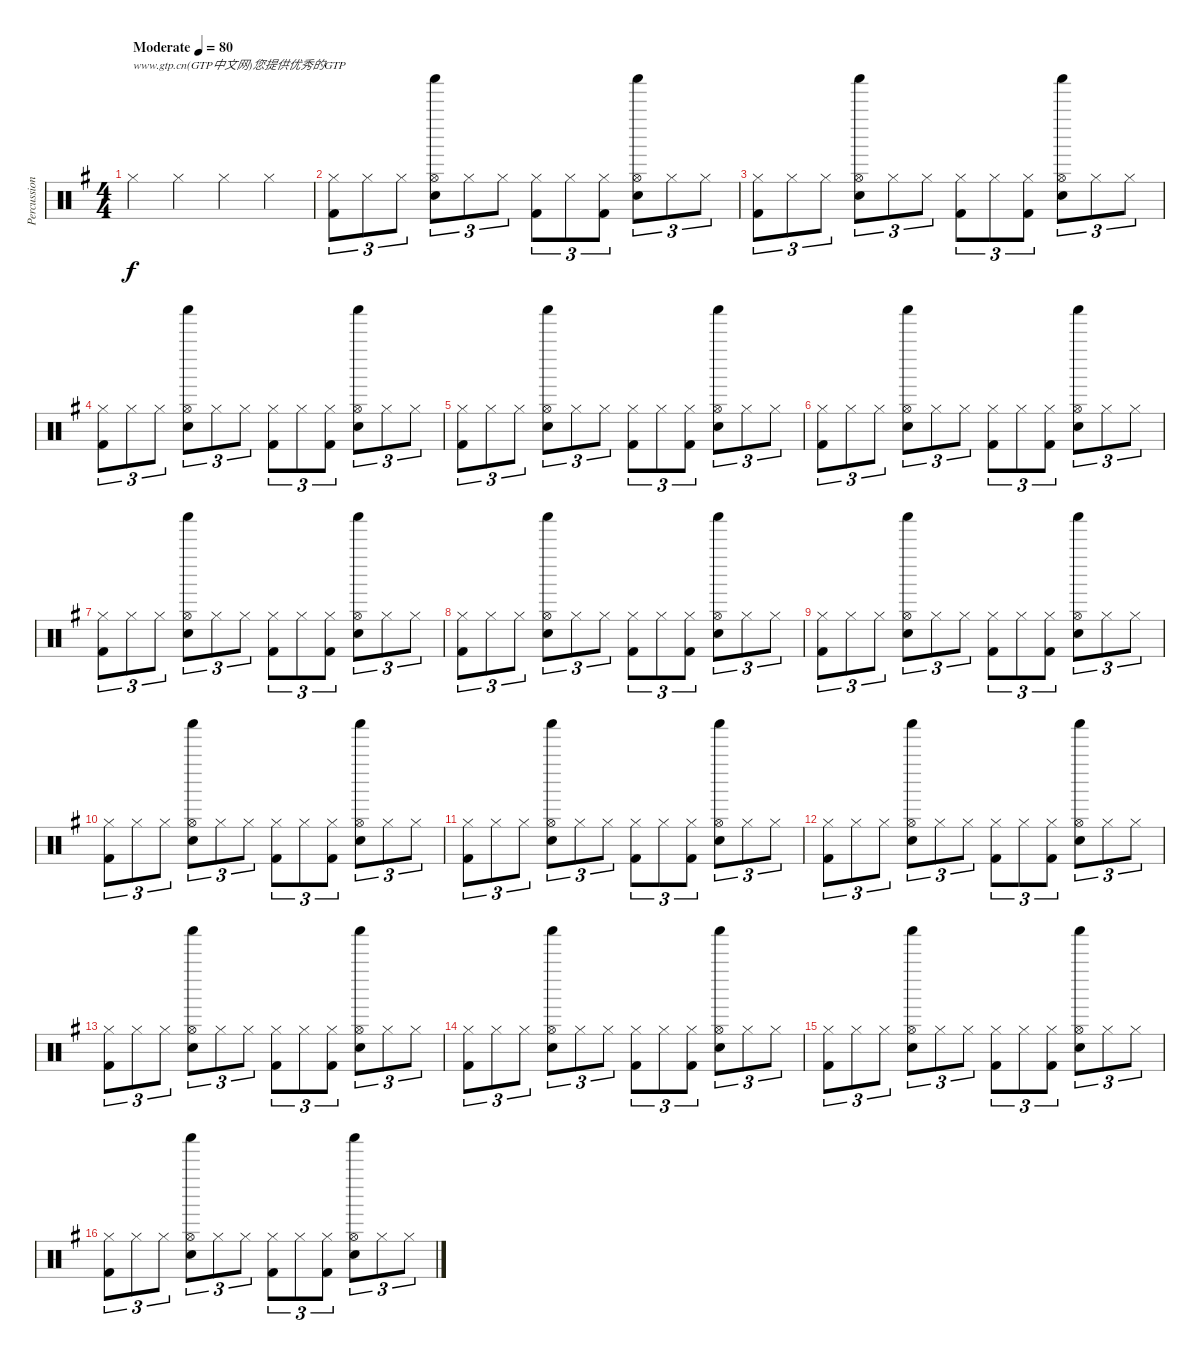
\track ("Percussion" "Percussion") {instrument percussion}
\staff {score}
\articulation defaults
\ts (4 4)
\tempo (80 "Moderate")
\clef neutral
\ks g "Hi-Hat (closed)".4{txt "www.gtp.cn(GTP中文网)您提供优秀的GTP" dy f} "Hi-Hat (closed)".4 "Hi-Hat (closed)".4 "Hi-Hat (closed)".4
|
("Kick (hit) 2" "Hi-Hat (closed)").8{tu (3 2)} "Hi-Hat (closed)".8{tu (3 2)} "Hi-Hat (closed)".8{tu (3 2)} ("Electric Snare (hit)" "Shaker (hit)" "Hi-Hat (open)").8{tu (3 2)} "Hi-Hat (closed)".8{tu (3 2)} "Hi-Hat (closed)".8{tu (3 2)} ("Kick (hit) 2" "Hi-Hat (closed)").8{tu (3 2)} "Hi-Hat (closed)".8{tu (3 2)} ("Kick (hit) 2" "Hi-Hat (closed)").8{tu (3 2)} ("Electric Snare (hit)" "Shaker (hit)" "Hi-Hat (open)").8{tu (3 2)} "Hi-Hat (closed)".8{tu (3 2)} "Hi-Hat (closed)".8{tu (3 2)} |
("Kick (hit) 2" "Hi-Hat (closed)").8{tu (3 2)} "Hi-Hat (closed)".8{tu (3 2)} "Hi-Hat (closed)".8{tu (3 2)} ("Electric Snare (hit)" "Shaker (hit)" "Hi-Hat (open)").8{tu (3 2)} "Hi-Hat (closed)".8{tu (3 2)} "Hi-Hat (closed)".8{tu (3 2)} ("Kick (hit) 2" "Hi-Hat (closed)").8{tu (3 2)} "Hi-Hat (closed)".8{tu (3 2)} ("Kick (hit) 2" "Hi-Hat (closed)").8{tu (3 2)} ("Electric Snare (hit)" "Shaker (hit)" "Hi-Hat (open)").8{tu (3 2)} "Hi-Hat (closed)".8{tu (3 2)} "Hi-Hat (closed)".8{tu (3 2)} |
("Kick (hit) 2" "Hi-Hat (closed)").8{tu (3 2)} "Hi-Hat (closed)".8{tu (3 2)} "Hi-Hat (closed)".8{tu (3 2)} ("Electric Snare (hit)" "Shaker (hit)" "Hi-Hat (open)").8{tu (3 2)} "Hi-Hat (closed)".8{tu (3 2)} "Hi-Hat (closed)".8{tu (3 2)} ("Kick (hit) 2" "Hi-Hat (closed)").8{tu (3 2)} "Hi-Hat (closed)".8{tu (3 2)} ("Kick (hit) 2" "Hi-Hat (closed)").8{tu (3 2)} ("Electric Snare (hit)" "Shaker (hit)" "Hi-Hat (open)").8{tu (3 2)} "Hi-Hat (closed)".8{tu (3 2)} "Hi-Hat (closed)".8{tu (3 2)} |
("Kick (hit) 2" "Hi-Hat (closed)").8{tu (3 2)} "Hi-Hat (closed)".8{tu (3 2)} "Hi-Hat (closed)".8{tu (3 2)} ("Electric Snare (hit)" "Shaker (hit)" "Hi-Hat (open)").8{tu (3 2)} "Hi-Hat (closed)".8{tu (3 2)} "Hi-Hat (closed)".8{tu (3 2)} ("Kick (hit) 2" "Hi-Hat (closed)").8{tu (3 2)} "Hi-Hat (closed)".8{tu (3 2)} ("Kick (hit) 2" "Hi-Hat (closed)").8{tu (3 2)} ("Electric Snare (hit)" "Shaker (hit)" "Hi-Hat (open)").8{tu (3 2)} "Hi-Hat (closed)".8{tu (3 2)} "Hi-Hat (closed)".8{tu (3 2)} |
("Kick (hit) 2" "Hi-Hat (closed)").8{tu (3 2)} "Hi-Hat (closed)".8{tu (3 2)} "Hi-Hat (closed)".8{tu (3 2)} ("Electric Snare (hit)" "Shaker (hit)" "Hi-Hat (open)").8{tu (3 2)} "Hi-Hat (closed)".8{tu (3 2)} "Hi-Hat (closed)".8{tu (3 2)} ("Kick (hit) 2" "Hi-Hat (closed)").8{tu (3 2)} "Hi-Hat (closed)".8{tu (3 2)} ("Kick (hit) 2" "Hi-Hat (closed)").8{tu (3 2)} ("Electric Snare (hit)" "Shaker (hit)" "Hi-Hat (open)").8{tu (3 2)} "Hi-Hat (closed)".8{tu (3 2)} "Hi-Hat (closed)".8{tu (3 2)} |
("Kick (hit) 2" "Hi-Hat (closed)").8{tu (3 2)} "Hi-Hat (closed)".8{tu (3 2)} "Hi-Hat (closed)".8{tu (3 2)} ("Electric Snare (hit)" "Shaker (hit)" "Hi-Hat (open)").8{tu (3 2)} "Hi-Hat (closed)".8{tu (3 2)} "Hi-Hat (closed)".8{tu (3 2)} ("Kick (hit) 2" "Hi-Hat (closed)").8{tu (3 2)} "Hi-Hat (closed)".8{tu (3 2)} ("Kick (hit) 2" "Hi-Hat (closed)").8{tu (3 2)} ("Electric Snare (hit)" "Shaker (hit)" "Hi-Hat (open)").8{tu (3 2)} "Hi-Hat (closed)".8{tu (3 2)} "Hi-Hat (closed)".8{tu (3 2)} |
("Kick (hit) 2" "Hi-Hat (closed)").8{tu (3 2)} "Hi-Hat (closed)".8{tu (3 2)} "Hi-Hat (closed)".8{tu (3 2)} ("Electric Snare (hit)" "Shaker (hit)" "Hi-Hat (open)").8{tu (3 2)} "Hi-Hat (closed)".8{tu (3 2)} "Hi-Hat (closed)".8{tu (3 2)} ("Kick (hit) 2" "Hi-Hat (closed)").8{tu (3 2)} "Hi-Hat (closed)".8{tu (3 2)} ("Kick (hit) 2" "Hi-Hat (closed)").8{tu (3 2)} ("Electric Snare (hit)" "Shaker (hit)" "Hi-Hat (open)").8{tu (3 2)} "Hi-Hat (closed)".8{tu (3 2)} "Hi-Hat (closed)".8{tu (3 2)} |
("Kick (hit) 2" "Hi-Hat (closed)").8{tu (3 2)} "Hi-Hat (closed)".8{tu (3 2)} "Hi-Hat (closed)".8{tu (3 2)} ("Electric Snare (hit)" "Shaker (hit)" "Hi-Hat (open)").8{tu (3 2)} "Hi-Hat (closed)".8{tu (3 2)} "Hi-Hat (closed)".8{tu (3 2)} ("Kick (hit) 2" "Hi-Hat (closed)").8{tu (3 2)} "Hi-Hat (closed)".8{tu (3 2)} ("Kick (hit) 2" "Hi-Hat (closed)").8{tu (3 2)} ("Electric Snare (hit)" "Shaker (hit)" "Hi-Hat (open)").8{tu (3 2)} "Hi-Hat (closed)".8{tu (3 2)} "Hi-Hat (closed)".8{tu (3 2)} |
("Kick (hit) 2" "Hi-Hat (closed)").8{tu (3 2)} "Hi-Hat (closed)".8{tu (3 2)} "Hi-Hat (closed)".8{tu (3 2)} ("Electric Snare (hit)" "Shaker (hit)" "Hi-Hat (open)").8{tu (3 2)} "Hi-Hat (closed)".8{tu (3 2)} "Hi-Hat (closed)".8{tu (3 2)} ("Kick (hit) 2" "Hi-Hat (closed)").8{tu (3 2)} "Hi-Hat (closed)".8{tu (3 2)} ("Kick (hit) 2" "Hi-Hat (closed)").8{tu (3 2)} ("Electric Snare (hit)" "Shaker (hit)" "Hi-Hat (open)").8{tu (3 2)} "Hi-Hat (closed)".8{tu (3 2)} "Hi-Hat (closed)".8{tu (3 2)} |
("Kick (hit) 2" "Hi-Hat (closed)").8{tu (3 2)} "Hi-Hat (closed)".8{tu (3 2)} "Hi-Hat (closed)".8{tu (3 2)} ("Electric Snare (hit)" "Shaker (hit)" "Hi-Hat (open)").8{tu (3 2)} "Hi-Hat (closed)".8{tu (3 2)} "Hi-Hat (closed)".8{tu (3 2)} ("Kick (hit) 2" "Hi-Hat (closed)").8{tu (3 2)} "Hi-Hat (closed)".8{tu (3 2)} ("Kick (hit) 2" "Hi-Hat (closed)").8{tu (3 2)} ("Electric Snare (hit)" "Shaker (hit)" "Hi-Hat (open)").8{tu (3 2)} "Hi-Hat (closed)".8{tu (3 2)} "Hi-Hat (closed)".8{tu (3 2)} |
("Kick (hit) 2" "Hi-Hat (closed)").8{tu (3 2)} "Hi-Hat (closed)".8{tu (3 2)} "Hi-Hat (closed)".8{tu (3 2)} ("Electric Snare (hit)" "Shaker (hit)" "Hi-Hat (open)").8{tu (3 2)} "Hi-Hat (closed)".8{tu (3 2)} "Hi-Hat (closed)".8{tu (3 2)} ("Kick (hit) 2" "Hi-Hat (closed)").8{tu (3 2)} "Hi-Hat (closed)".8{tu (3 2)} ("Kick (hit) 2" "Hi-Hat (closed)").8{tu (3 2)} ("Electric Snare (hit)" "Shaker (hit)" "Hi-Hat (open)").8{tu (3 2)} "Hi-Hat (closed)".8{tu (3 2)} "Hi-Hat (closed)".8{tu (3 2)} |
("Kick (hit) 2" "Hi-Hat (closed)").8{tu (3 2)} "Hi-Hat (closed)".8{tu (3 2)} "Hi-Hat (closed)".8{tu (3 2)} ("Electric Snare (hit)" "Shaker (hit)" "Hi-Hat (open)").8{tu (3 2)} "Hi-Hat (closed)".8{tu (3 2)} "Hi-Hat (closed)".8{tu (3 2)} ("Kick (hit) 2" "Hi-Hat (closed)").8{tu (3 2)} "Hi-Hat (closed)".8{tu (3 2)} ("Kick (hit) 2" "Hi-Hat (closed)").8{tu (3 2)} ("Electric Snare (hit)" "Shaker (hit)" "Hi-Hat (open)").8{tu (3 2)} "Hi-Hat (closed)".8{tu (3 2)} "Hi-Hat (closed)".8{tu (3 2)} |
("Kick (hit) 2" "Hi-Hat (closed)").8{tu (3 2)} "Hi-Hat (closed)".8{tu (3 2)} "Hi-Hat (closed)".8{tu (3 2)} ("Electric Snare (hit)" "Shaker (hit)" "Hi-Hat (open)").8{tu (3 2)} "Hi-Hat (closed)".8{tu (3 2)} "Hi-Hat (closed)".8{tu (3 2)} ("Kick (hit) 2" "Hi-Hat (closed)").8{tu (3 2)} "Hi-Hat (closed)".8{tu (3 2)} ("Kick (hit) 2" "Hi-Hat (closed)").8{tu (3 2)} ("Electric Snare (hit)" "Shaker (hit)" "Hi-Hat (open)").8{tu (3 2)} "Hi-Hat (closed)".8{tu (3 2)} "Hi-Hat (closed)".8{tu (3 2)} |
("Kick (hit) 2" "Hi-Hat (closed)").8{tu (3 2)} "Hi-Hat (closed)".8{tu (3 2)} "Hi-Hat (closed)".8{tu (3 2)} ("Electric Snare (hit)" "Shaker (hit)" "Hi-Hat (open)").8{tu (3 2)} "Hi-Hat (closed)".8{tu (3 2)} "Hi-Hat (closed)".8{tu (3 2)} ("Kick (hit) 2" "Hi-Hat (closed)").8{tu (3 2)} "Hi-Hat (closed)".8{tu (3 2)} ("Kick (hit) 2" "Hi-Hat (closed)").8{tu (3 2)} ("Electric Snare (hit)" "Shaker (hit)" "Hi-Hat (open)").8{tu (3 2)} "Hi-Hat (closed)".8{tu (3 2)} "Hi-Hat (closed)".8{tu (3 2)} |
("Kick (hit) 2" "Hi-Hat (closed)").8{tu (3 2)} "Hi-Hat (closed)".8{tu (3 2)} "Hi-Hat (closed)".8{tu (3 2)} ("Electric Snare (hit)" "Shaker (hit)" "Hi-Hat (open)").8{tu (3 2)} "Hi-Hat (closed)".8{tu (3 2)} "Hi-Hat (closed)".8{tu (3 2)} ("Kick (hit) 2" "Hi-Hat (closed)").8{tu (3 2)} "Hi-Hat (closed)".8{tu (3 2)} ("Kick (hit) 2" "Hi-Hat (closed)").8{tu (3 2)} ("Electric Snare (hit)" "Shaker (hit)" "Hi-Hat (open)").8{tu (3 2)} "Hi-Hat (closed)".8{tu (3 2)} "Hi-Hat (closed)".8{tu (3 2)}
